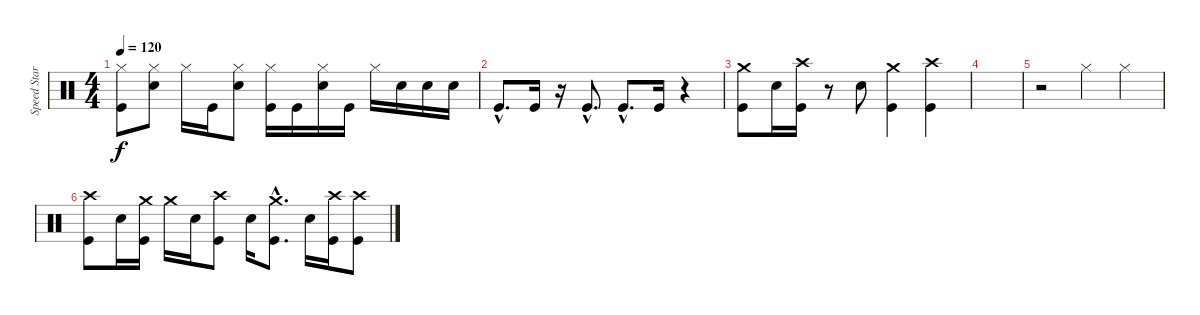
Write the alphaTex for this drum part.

\track ("Speed Star" "Speed Star") {instrument percussion}
\staff {score}
\articulation defaults
\ts (4 4)
\tempo 120
\clef neutral
\ks c
("Kick (hit)" "Hi-Hat (closed)").8{dy f} ("Snare (hit) 2" "Hi-Hat (closed)").8 "Hi-Hat (closed)".16 "Kick (hit)".16 ("Snare (hit) 2" "Hi-Hat (closed)").8 ("Kick (hit)" "Hi-Hat (closed)").16 "Kick (hit)".16 ("Snare (hit) 2" "Hi-Hat (closed)").16 "Kick (hit)".16 "Hi-Hat (closed)".16 "Snare (hit) 2".16 "Snare (hit) 2".16 "Snare (hit) 2".16 |
"Kick (hit)"{hac}.8{d} "Kick (hit)".16 r.16 "Kick (hit)"{hac}.8{d} "Kick (hit)"{hac}.8{d} "Kick (hit)".16 r.4 |
("Kick (hit)" "Crash medium (hit)").8 "Snare (hit) 2".16 ("Kick (hit)" "Crash high (hit)").16 r.8 "Snare (hit) 2".8 ("Kick (hit)" "Crash medium (hit)").4 ("Kick (hit)" "Crash high (hit)").4 |
|
r.2 "Hi-Hat (closed)".4 "Hi-Hat (closed)".4 |
("Kick (hit)" "Crash high (hit)").8 "Snare (hit) 2".16 ("Kick (hit)" "Crash medium (hit)").16 "Crash medium (hit)".16 "Snare (hit) 2".16 ("Kick (hit)" "Crash high (hit)").8 "Snare (hit) 2".16 ("Kick (hit)"{hac} "Crash medium (hit)"{hac}).8{d} "Snare (hit) 2".16 ("Kick (hit)" "Crash high (hit)").16 ("Kick (hit)" "Crash high (hit)").8
